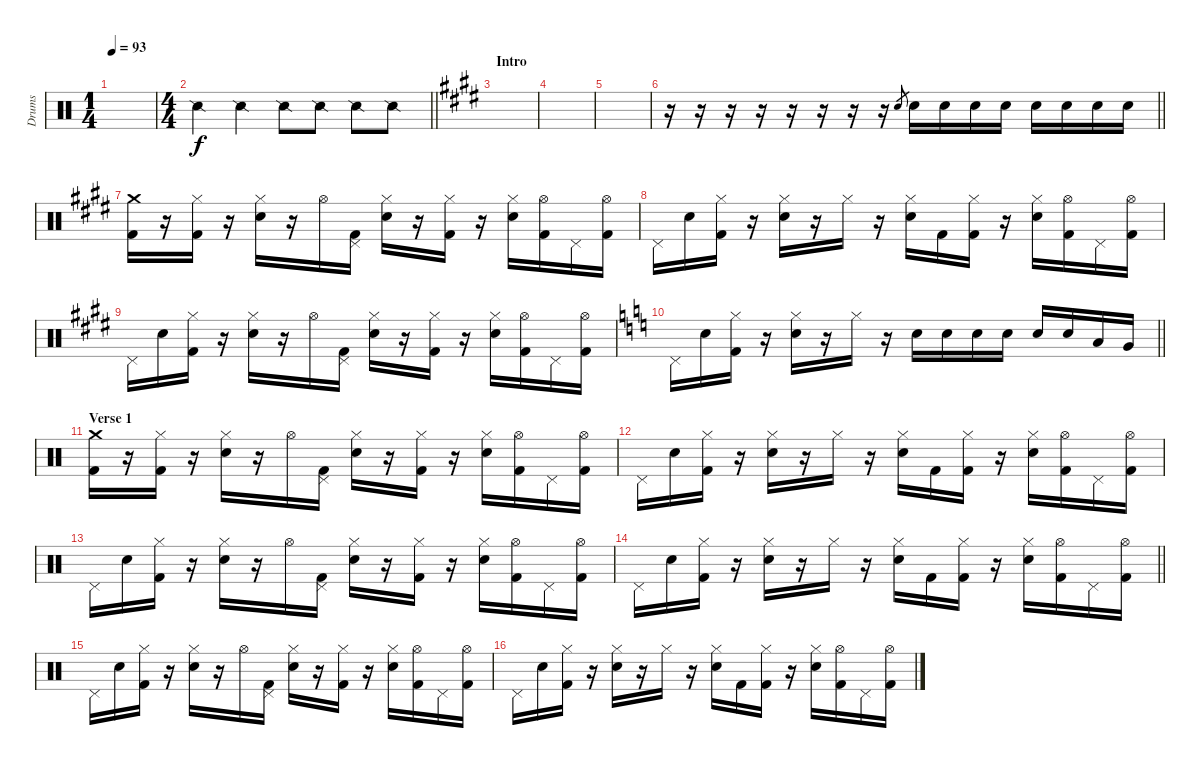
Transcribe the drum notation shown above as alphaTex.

\track ("Drums" "Drums") {instrument percussion}
\staff {score}
\articulation defaults
\ts (1 4)
\tempo 93
\clef neutral
\ks c
|
\ts (4 4)
\barLineRight lightlight "Snare (side stick) 2".4 "Snare (side stick) 2".4 "Snare (side stick) 2".8 "Snare (side stick) 2".8 "Snare (side stick) 2".8 "Snare (side stick) 2".8
|
\section ("" "Intro")
\ks e
|
|
|
\barLineRight lightlight
r.16 r.16 r.16 r.16 r.16 r.16 r.16 r.16 "Snare (hit) 2".8{gr} "Snare (hit) 2".16 "Snare (hit) 2".16 "Snare (hit) 2".16 "Snare (hit) 2".16 "Snare (hit) 2".16 "Snare (hit) 2".16 "Snare (hit) 2".16 "Snare (hit) 2".16 |
\section ("" "")
("Crash medium (hit)" "Kick (hit) 2").16 r.16 ("Hi-Hat (closed)" "Kick (hit) 2").16 r.16 ("Hi-Hat (closed)" "Snare (hit) 2").16 r.16 "Hi-Hat (open)".16 ("Pedal Hi-Hat (hit)" "Kick (hit) 2").16 ("Hi-Hat (closed)" "Snare (hit) 2").16 r.16 ("Hi-Hat (closed)" "Kick (hit) 2").16 r.16 ("Hi-Hat (closed)" "Snare (hit) 2").16 ("Hi-Hat (open)" "Kick (hit) 2").16 "Pedal Hi-Hat (hit)".16 ("Hi-Hat (open)" "Kick (hit) 2").16 |
"Pedal Hi-Hat (hit)".16 "Snare (hit) 2".16 ("Hi-Hat (closed)" "Kick (hit) 2").16 r.16 ("Hi-Hat (closed)" "Snare (hit) 2").16 r.16 "Hi-Hat (closed)".16 r.16 ("Hi-Hat (closed)" "Snare (hit) 2").16 "Kick (hit) 2".16 ("Hi-Hat (closed)" "Kick (hit) 2").16 r.16 ("Hi-Hat (closed)" "Snare (hit) 2").16 ("Hi-Hat (open)" "Kick (hit) 2").16 "Pedal Hi-Hat (hit)".16 ("Hi-Hat (open)" "Kick (hit) 2").16 |
"Pedal Hi-Hat (hit)".16 "Snare (hit) 2".16 ("Hi-Hat (closed)" "Kick (hit) 2").16 r.16 ("Hi-Hat (closed)" "Snare (hit) 2").16 r.16 "Hi-Hat (open)".16 ("Pedal Hi-Hat (hit)" "Kick (hit) 2").16 ("Hi-Hat (closed)" "Snare (hit) 2").16 r.16 ("Hi-Hat (closed)" "Kick (hit) 2").16 r.16 ("Hi-Hat (closed)" "Snare (hit) 2").16 ("Hi-Hat (open)" "Kick (hit) 2").16 "Pedal Hi-Hat (hit)".16 ("Hi-Hat (open)" "Kick (hit) 2").16 |
\barLineRight lightlight
\ks c "Pedal Hi-Hat (hit)".16 "Snare (hit) 2".16
("Hi-Hat (closed)" "Kick (hit) 2").16 r.16 ("Hi-Hat (closed)" "Snare (hit) 2").16 r.16 "Hi-Hat (closed)".16 r.16 "Snare (hit) 2".16 "Snare (hit) 2".16 "Snare (hit) 2".16 "Snare (hit) 2".16 "Snare (hit) 2".16 "Snare (hit) 2".16 "Low Tom (hit)".16 "Very Low Tom (hit)".16 |
\section ("" "Verse 1")
("Crash medium (hit)" "Kick (hit) 2").16 r.16 ("Hi-Hat (closed)" "Kick (hit) 2").16 r.16 ("Hi-Hat (closed)" "Snare (hit) 2").16 r.16 "Hi-Hat (open)".16 ("Pedal Hi-Hat (hit)" "Kick (hit) 2").16 ("Hi-Hat (closed)" "Snare (hit) 2").16 r.16 ("Hi-Hat (closed)" "Kick (hit) 2").16 r.16 ("Hi-Hat (closed)" "Snare (hit) 2").16 ("Hi-Hat (open)" "Kick (hit) 2").16 "Pedal Hi-Hat (hit)".16 ("Hi-Hat (open)" "Kick (hit) 2").16 |
"Pedal Hi-Hat (hit)".16 "Snare (hit) 2".16 ("Hi-Hat (closed)" "Kick (hit) 2").16 r.16 ("Hi-Hat (closed)" "Snare (hit) 2").16 r.16 "Hi-Hat (closed)".16 r.16 ("Hi-Hat (closed)" "Snare (hit) 2").16 "Kick (hit) 2".16 ("Hi-Hat (closed)" "Kick (hit) 2").16 r.16 ("Hi-Hat (closed)" "Snare (hit) 2").16 ("Hi-Hat (open)" "Kick (hit) 2").16 "Pedal Hi-Hat (hit)".16 ("Hi-Hat (open)" "Kick (hit) 2").16 |
"Pedal Hi-Hat (hit)".16 "Snare (hit) 2".16 ("Hi-Hat (closed)" "Kick (hit) 2").16 r.16 ("Hi-Hat (closed)" "Snare (hit) 2").16 r.16 "Hi-Hat (open)".16 ("Pedal Hi-Hat (hit)" "Kick (hit) 2").16 ("Hi-Hat (closed)" "Snare (hit) 2").16 r.16 ("Hi-Hat (closed)" "Kick (hit) 2").16 r.16 ("Hi-Hat (closed)" "Snare (hit) 2").16 ("Hi-Hat (open)" "Kick (hit) 2").16 "Pedal Hi-Hat (hit)".16 ("Hi-Hat (open)" "Kick (hit) 2").16 |
\barLineRight lightlight "Pedal Hi-Hat (hit)".16 "Snare (hit) 2".16
("Hi-Hat (closed)" "Kick (hit) 2").16 r.16 ("Hi-Hat (closed)" "Snare (hit) 2").16 r.16 "Hi-Hat (closed)".16 r.16 ("Hi-Hat (closed)" "Snare (hit) 2").16 "Kick (hit) 2".16 ("Hi-Hat (closed)" "Kick (hit) 2").16 r.16 ("Hi-Hat (closed)" "Snare (hit) 2").16 ("Hi-Hat (open)" "Kick (hit) 2").16 "Pedal Hi-Hat (hit)".16 ("Hi-Hat (open)" "Kick (hit) 2").16 |
"Pedal Hi-Hat (hit)".16 "Snare (hit) 2".16 ("Hi-Hat (closed)" "Kick (hit) 2").16 r.16 ("Hi-Hat (closed)" "Snare (hit) 2").16 r.16 "Hi-Hat (open)".16 ("Pedal Hi-Hat (hit)" "Kick (hit) 2").16 ("Hi-Hat (closed)" "Snare (hit) 2").16 r.16 ("Hi-Hat (closed)" "Kick (hit) 2").16 r.16 ("Hi-Hat (closed)" "Snare (hit) 2").16 ("Hi-Hat (open)" "Kick (hit) 2").16 "Pedal Hi-Hat (hit)".16 ("Hi-Hat (open)" "Kick (hit) 2").16 |
"Pedal Hi-Hat (hit)".16 "Snare (hit) 2".16 ("Hi-Hat (closed)" "Kick (hit) 2").16 r.16 ("Hi-Hat (closed)" "Snare (hit) 2").16 r.16 "Hi-Hat (closed)".16 r.16 ("Hi-Hat (closed)" "Snare (hit) 2").16 "Kick (hit) 2".16 ("Hi-Hat (closed)" "Kick (hit) 2").16 r.16 ("Hi-Hat (closed)" "Snare (hit) 2").16 ("Hi-Hat (open)" "Kick (hit) 2").16 "Pedal Hi-Hat (hit)".16 ("Hi-Hat (open)" "Kick (hit) 2").16
